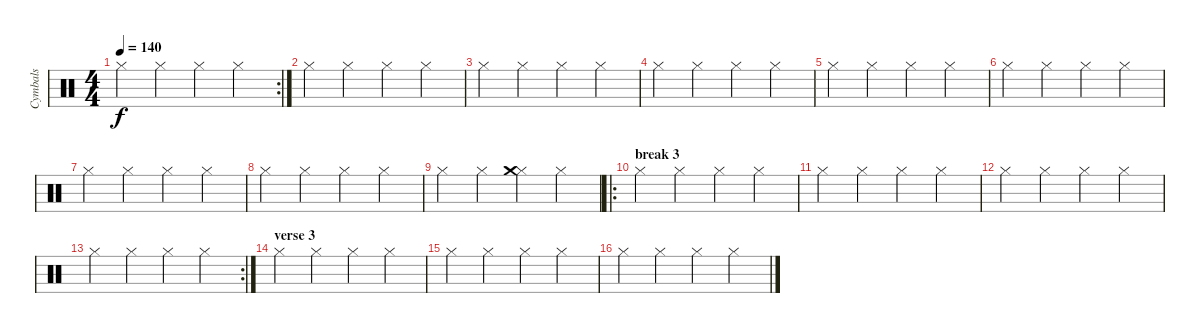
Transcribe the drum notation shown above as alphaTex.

\track ("Cymbals" "Cymbals") {instrument percussion}
\staff {score}
\articulation defaults
\rc 2
\ts (4 4)
\tempo 140
\clef neutral
\ks c "Hi-Hat (closed)".4{dy f} "Hi-Hat (closed)".4 "Hi-Hat (closed)".4 "Hi-Hat (closed)".4
|
"Hi-Hat (closed)".4 "Hi-Hat (closed)".4 "Hi-Hat (closed)".4 "Hi-Hat (closed)".4 |
"Hi-Hat (closed)".4 "Hi-Hat (closed)".4 "Hi-Hat (closed)".4 "Hi-Hat (closed)".4 |
"Hi-Hat (closed)".4 "Hi-Hat (closed)".4 "Hi-Hat (closed)".4 "Hi-Hat (closed)".4 |
"Hi-Hat (closed)".4 "Hi-Hat (closed)".4 "Hi-Hat (closed)".4 "Hi-Hat (closed)".4 |
"Hi-Hat (closed)".4 "Hi-Hat (closed)".4 "Hi-Hat (closed)".4 "Hi-Hat (closed)".4 |
"Hi-Hat (closed)".4 "Hi-Hat (closed)".4 "Hi-Hat (closed)".4 "Hi-Hat (closed)".4 |
"Hi-Hat (closed)".4 "Hi-Hat (closed)".4 "Hi-Hat (closed)".4 "Hi-Hat (closed)".4 |
"Hi-Hat (closed)".4 "Hi-Hat (closed)".4 ("Hi-Hat (closed)" "Crash medium (hit)").4 "Hi-Hat (closed)".4 |
\ro
\section ("" "break 3")
"Hi-Hat (closed)".4 "Hi-Hat (closed)".4 "Hi-Hat (closed)".4 "Hi-Hat (closed)".4 |
"Hi-Hat (closed)".4 "Hi-Hat (closed)".4 "Hi-Hat (closed)".4 "Hi-Hat (closed)".4 |
"Hi-Hat (closed)".4 "Hi-Hat (closed)".4 "Hi-Hat (closed)".4 "Hi-Hat (closed)".4 |
\rc 2 "Hi-Hat (closed)".4 "Hi-Hat (closed)".4 "Hi-Hat (closed)".4 "Hi-Hat (closed)".4
|
\section ("" "verse 3")
"Hi-Hat (closed)".4 "Hi-Hat (closed)".4 "Hi-Hat (closed)".4 "Hi-Hat (closed)".4 |
"Hi-Hat (closed)".4 "Hi-Hat (closed)".4 "Hi-Hat (closed)".4 "Hi-Hat (closed)".4 |
"Hi-Hat (closed)".4 "Hi-Hat (closed)".4 "Hi-Hat (closed)".4 "Hi-Hat (closed)".4
